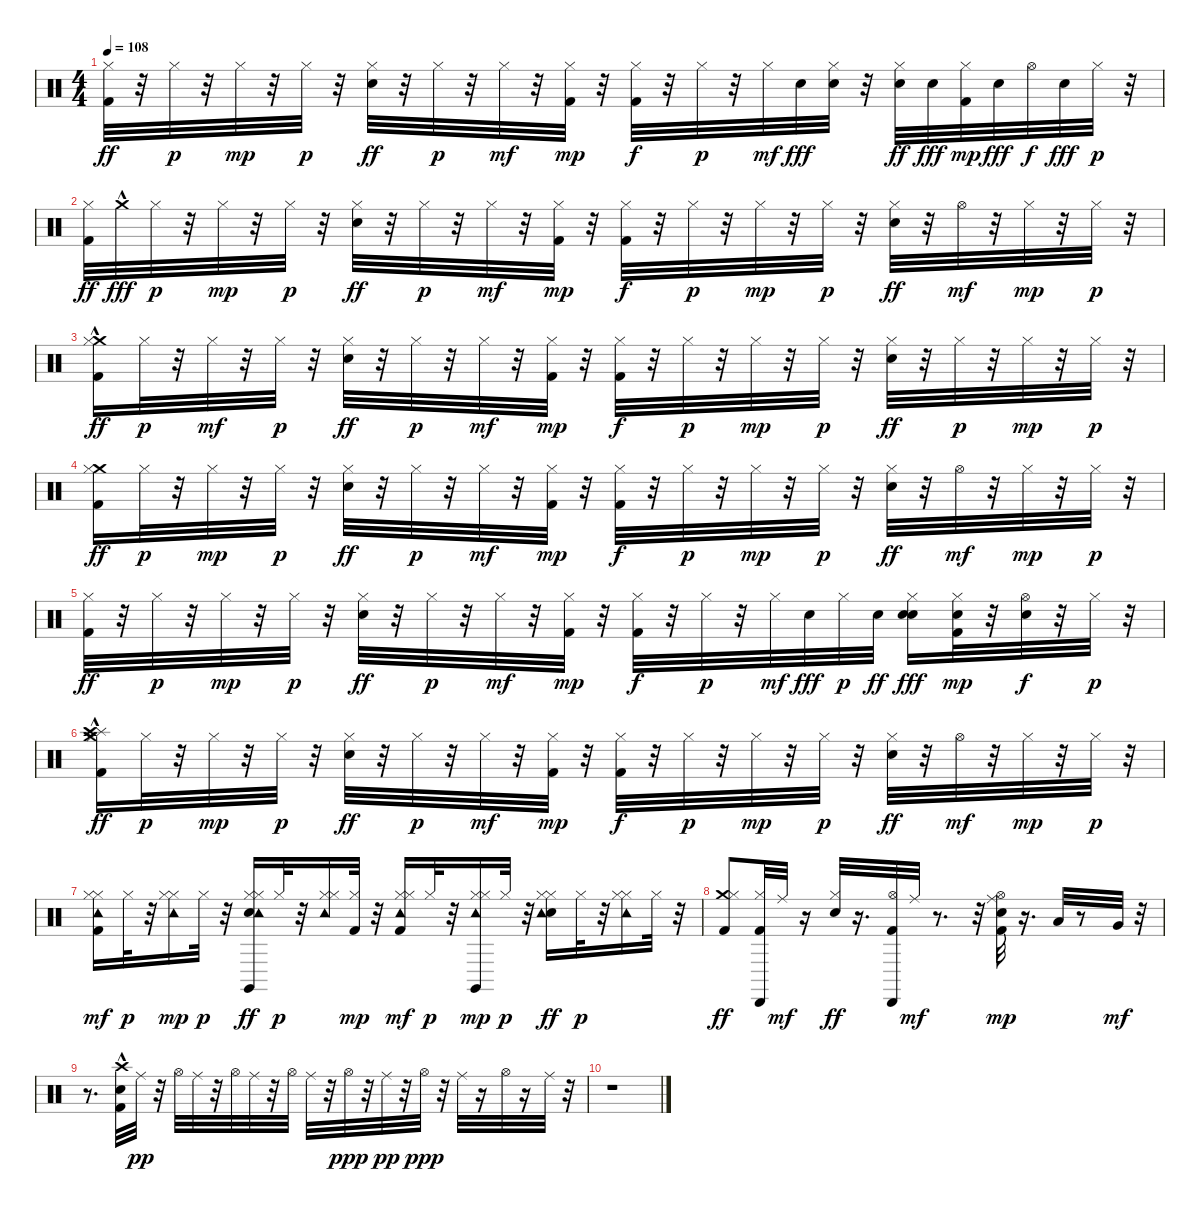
\track "" {instrument percussion}
\staff {score}
\articulation defaults
\ts (4 4)
\tempo 108
\clef neutral
\ks c
("Hi-Hat (closed)" "Kick (hit) 2").32{dy ff} r.32 "Hi-Hat (closed)".32{dy p} r.32 "Hi-Hat (closed)".32{dy mp} r.32 "Hi-Hat (closed)".32{dy p} r.32 ("Hi-Hat (closed)" "Snare (hit) 2").32{dy ff} r.32 "Hi-Hat (closed)".32{dy p} r.32 "Hi-Hat (closed)".32{dy mf} r.32 ("Hi-Hat (closed)" "Kick (hit) 2").32{dy mp} r.32 ("Hi-Hat (closed)" "Kick (hit) 2").32{dy f} r.32 "Hi-Hat (closed)".32{dy p} r.32 "Hi-Hat (closed)".32{dy mf} "Snare (hit) 2".32{dy fff} ("Hi-Hat (closed)" "Snare (hit) 2").32 r.32 ("Hi-Hat (closed)" "Snare (hit) 2").32{dy ff} "Snare (hit) 2".32{dy fff} ("Hi-Hat (closed)" "Kick (hit) 2").32{dy mp} "Snare (hit) 2".32{dy fff} "Hi-Hat (open)".32{dy f} "Snare (hit) 2".32{dy fff} "Hi-Hat (closed)".32{dy p} r.32 |
("Hi-Hat (closed)" "Kick (hit) 2").32{dy ff} "Crash medium (hit)"{hac}.32{dy fff} "Hi-Hat (closed)".32{dy p} r.32 "Hi-Hat (closed)".32{dy mp} r.32 "Hi-Hat (closed)".32{dy p} r.32 ("Hi-Hat (closed)" "Snare (hit) 2").32{dy ff} r.32 "Hi-Hat (closed)".32{dy p} r.32 "Hi-Hat (closed)".32{dy mf} r.32 ("Hi-Hat (closed)" "Kick (hit) 2").32{dy mp} r.32 ("Hi-Hat (closed)" "Kick (hit) 2").32{dy f} r.32 "Hi-Hat (closed)".32{dy p} r.32 "Hi-Hat (closed)".32{dy mp} r.32 "Hi-Hat (closed)".32{dy p} r.32 ("Hi-Hat (closed)" "Snare (hit) 2").32{dy ff} r.32 "Hi-Hat (open)".32{dy mf} r.32 "Hi-Hat (closed)".32{dy mp} r.32 "Hi-Hat (closed)".32{dy p} r.32 |
("Crash medium (hit)"{hac} "Hi-Hat (closed)" "Kick (hit) 2").16{dy ff} "Hi-Hat (closed)".32{dy p} r.32 "Hi-Hat (closed)".32{dy mf} r.32 "Hi-Hat (closed)".32{dy p} r.32 ("Hi-Hat (closed)" "Snare (hit) 2").32{dy ff} r.32 "Hi-Hat (closed)".32{dy p} r.32 "Hi-Hat (closed)".32{dy mf} r.32 ("Hi-Hat (closed)" "Kick (hit) 2").32{dy mp} r.32 ("Hi-Hat (closed)" "Kick (hit) 2").32{dy f} r.32 "Hi-Hat (closed)".32{dy p} r.32 "Hi-Hat (closed)".32{dy mp} r.32 "Hi-Hat (closed)".32{dy p} r.32 ("Hi-Hat (closed)" "Snare (hit) 2").32{dy ff} r.32 "Hi-Hat (closed)".32{dy p} r.32 "Hi-Hat (closed)".32{dy mp} r.32 "Hi-Hat (closed)".32{dy p} r.32 |
("Crash medium (hit)" "Hi-Hat (closed)" "Kick (hit) 2").16{dy ff} "Hi-Hat (closed)".32{dy p} r.32 "Hi-Hat (closed)".32{dy mp} r.32 "Hi-Hat (closed)".32{dy p} r.32 ("Hi-Hat (closed)" "Snare (hit) 2").32{dy ff} r.32 "Hi-Hat (closed)".32{dy p} r.32 "Hi-Hat (closed)".32{dy mf} r.32 ("Hi-Hat (closed)" "Kick (hit) 2").32{dy mp} r.32 ("Hi-Hat (closed)" "Kick (hit) 2").32{dy f} r.32 "Hi-Hat (closed)".32{dy p} r.32 "Hi-Hat (closed)".32{dy mp} r.32 "Hi-Hat (closed)".32{dy p} r.32 ("Hi-Hat (closed)" "Snare (hit) 2").32{dy ff} r.32 "Hi-Hat (open)".32{dy mf} r.32 "Hi-Hat (closed)".32{dy mp} r.32 "Hi-Hat (closed)".32{dy p} r.32 |
("Hi-Hat (closed)" "Kick (hit) 2").32{dy ff} r.32 "Hi-Hat (closed)".32{dy p} r.32 "Hi-Hat (closed)".32{dy mp} r.32 "Hi-Hat (closed)".32{dy p} r.32 ("Hi-Hat (closed)" "Snare (hit) 2").32{dy ff} r.32 "Hi-Hat (closed)".32{dy p} r.32 "Hi-Hat (closed)".32{dy mf} r.32 ("Hi-Hat (closed)" "Kick (hit) 2").32{dy mp} r.32 ("Hi-Hat (closed)" "Kick (hit) 2").32{dy f} r.32 "Hi-Hat (closed)".32{dy p} r.32 "Hi-Hat (closed)".32{dy mf} "Snare (hit) 2".32{dy fff} "Hi-Hat (closed)".32{dy p} "Snare (hit) 2".32{dy ff} ("Hi-Hat (closed)" "Snare (hit) 2" "Snare (hit) 2").16{dy fff} ("Snare (hit) 2" "Hi-Hat (closed)" "Kick (hit) 2").32{dy mp} r.32 ("Snare (hit) 2" "Hi-Hat (open)").32{dy f} r.32 "Hi-Hat (closed)".32{dy p} r.32 |
("Crash medium (hit)"{hac} "Splash (hit)"{hac} "Crash high (hit)" "Hi-Hat (closed)" "Kick (hit) 2").16{dy ff} "Hi-Hat (closed)".32{dy p} r.32 "Hi-Hat (closed)".32{dy mp} r.32 "Hi-Hat (closed)".32{dy p} r.32 ("Hi-Hat (closed)" "Snare (hit) 2").32{dy ff} r.32 "Hi-Hat (closed)".32{dy p} r.32 "Hi-Hat (closed)".32{dy mf} r.32 ("Hi-Hat (closed)" "Kick (hit) 2").32{dy mp} r.32 ("Hi-Hat (closed)" "Kick (hit) 2").32{dy f} r.32 "Hi-Hat (closed)".32{dy p} r.32 "Hi-Hat (closed)".32{dy mp} r.32 "Hi-Hat (closed)".32{dy p} r.32 ("Hi-Hat (closed)" "Snare (hit) 2").32{dy ff} r.32 "Hi-Hat (open)".32{dy mf} r.32 "Hi-Hat (closed)".32{dy mp} r.32 "Hi-Hat (closed)".32{dy p} r.32 |
("Hi-Hat (closed)" "Kick (hit) 2" "Hi-Hat (closed)" "Tambourine (hit)").16{dy mf} "Hi-Hat (closed)".32{dy p} r.32 ("Hi-Hat (closed)" "Hi-Hat (closed)" "Tambourine (hit)").16{dy mp} "Hi-Hat (closed)".32{dy p} r.32 ("Hi-Hat (closed)" "Snare (hit) 2" "Hi-Hat (closed)" "Tambourine (hit)" "Claves (hit)").16{dy ff} "Hi-Hat (closed)".32{dy p} r.32 ("Hi-Hat (closed)" "Hi-Hat (closed)" "Tambourine (hit)").16 ("Hi-Hat (closed)" "Kick (hit) 2").32{dy mp} r.32 ("Hi-Hat (closed)" "Kick (hit) 2" "Tambourine (hit)" "Hi-Hat (closed)").16{dy mf} "Hi-Hat (closed)".32{dy p} r.32 ("Hi-Hat (closed)" "Tambourine (hit)" "Hi-Hat (closed)" "Claves (hit)").16{dy mp} "Hi-Hat (closed)".32{dy p} r.32 ("Hi-Hat (closed)" "Snare (hit) 2" "Hi-Hat (closed)" "Tambourine (hit)").16{dy ff} "Hi-Hat (closed)".32{dy p} r.32 ("Hi-Hat (closed)" "Hi-Hat (closed)" "Tambourine (hit)").16 "Hi-Hat (closed)".32 r.32 |
("Crash medium (hit)" "Hi-Hat (closed)" "Kick (hit) 2").8{dy ff} ("Hi-Hat (closed)" "Cabasa (hit)" "Kick (hit) 2").32 "Ride (middle)".32{dy mf} r.16 ("Hi-Hat (closed)" "Snare (hit) 2").32{dy ff} r.16{d} ("Cabasa (hit)" "Hi-Hat (open)" "Kick (hit) 2").32 "Ride (middle)".32{dy mf} r.8{d} r.32 ("Ride (middle)" "Hi-Hat (open)" "Snare (hit) 2" "Kick (hit) 2").32{dy mp} r.16{d} "Low Tom (hit)".32 r.8 "Very Low Tom (hit)".32{dy mf} r.32 |
r.8{d} ("Crash high (hit)"{hac} "Snare (hit) 2" "Kick (hit) 2").32 "Ride (middle)".32{dy pp} r.32 "Hi-Hat (open)".32 "Ride (middle)".32 r.32 "Hi-Hat (open)".32 "Ride (middle)".32 r.32 "Hi-Hat (open)".32 "Ride (middle)".32 r.32 "Hi-Hat (open)".32{dy ppp} r.32 "Ride (middle)".32{dy pp} r.32 "Hi-Hat (open)".32{dy ppp} r.32 "Ride (middle)".32 r.16 "Hi-Hat (open)".32 r.16 "Ride (middle)".32 r.32 |
r.1
